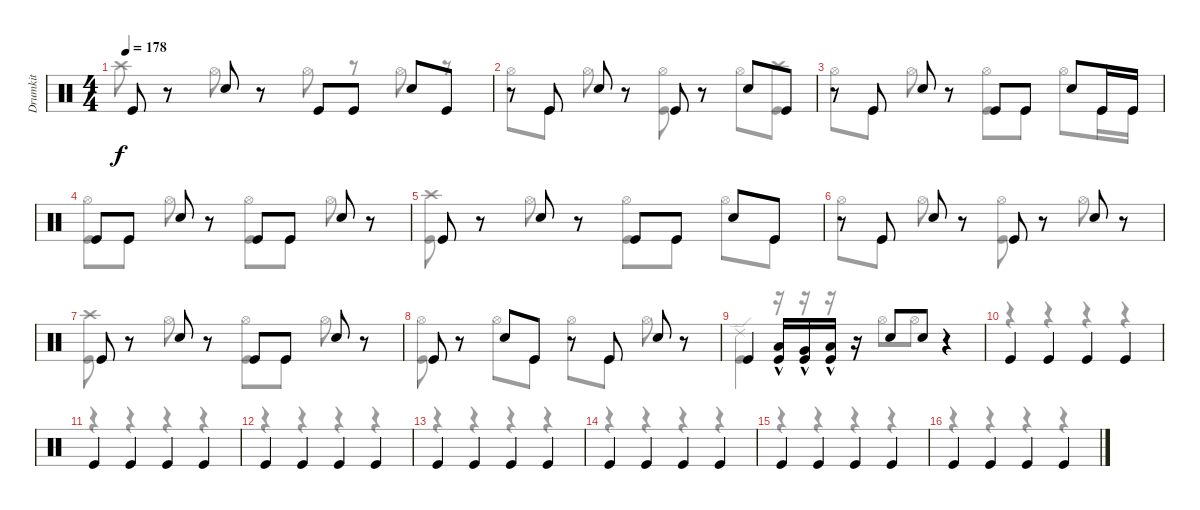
\track ("Drumkit" "Drumkit") {instrument percussion}
\staff {score}
\articulation defaults
\voice
\ts (4 4)
\section ("" "")
\tempo 178
\clef neutral
\ks c "Kick (hit)".8{dy f}
r.8 "Snare (hit) 2".8 r.8 "Kick (hit)".8 "Kick (hit)".8 "Snare (hit) 2".8 "Kick (hit)".8 |
r.8 "Kick (hit)".8 "Snare (hit) 2".8 r.8 "Kick (hit)".8 r.8 "Snare (hit) 2".8 "Kick (hit)".8 |
r.8 "Kick (hit)".8 "Snare (hit) 2".8 r.8 "Kick (hit)".8 "Kick (hit)".8 "Snare (hit) 2".8 "Kick (hit)".16 "Kick (hit)".16 |
"Kick (hit)".8 "Kick (hit)".8 "Snare (hit) 2".8 r.8 "Kick (hit)".8 "Kick (hit)".8 "Snare (hit) 2".8 r.8 |
"Kick (hit)".8 r.8 "Snare (hit) 2".8 r.8 "Kick (hit)".8 "Kick (hit)".8 "Snare (hit) 2".8 "Kick (hit)".8 |
r.8 "Kick (hit)".8 "Snare (hit) 2".8 r.8 "Kick (hit)".8 r.8 "Snare (hit) 2".8 r.8 |
"Kick (hit)".8 r.8 "Snare (hit) 2".8 r.8 "Kick (hit)".8 "Kick (hit)".8 "Snare (hit) 2".8 r.8 |
"Kick (hit)".8 r.8 "Snare (hit) 2".8 "Kick (hit)".8 r.8 "Kick (hit)".8 "Snare (hit) 2".8 r.8 |
"Kick (hit)".4 ("Kick (hit)" "Low Tom (hit)"{hac}).16 ("Kick (hit)" "Very Low Tom (hit)"{hac}).16 ("Kick (hit)" "Low Floor Tom (hit)"{hac}).16 r.16 "Snare (hit) 2".8 "Snare (hit) 2".8 r.4 |
\section ("" "")
"Kick (hit)".4 "Kick (hit)".4 "Kick (hit)".4 "Kick (hit)".4 |
"Kick (hit)".4 "Kick (hit)".4 "Kick (hit)".4 "Kick (hit)".4 |
"Kick (hit)".4 "Kick (hit)".4 "Kick (hit)".4 "Kick (hit)".4 |
"Kick (hit)".4 "Kick (hit)".4 "Kick (hit)".4 "Kick (hit)".4 |
"Kick (hit)".4 "Kick (hit)".4 "Kick (hit)".4 "Kick (hit)".4 |
"Kick (hit)".4 "Kick (hit)".4 "Kick (hit)".4 "Kick (hit)".4 |
"Kick (hit)".4 "Kick (hit)".4 "Kick (hit)".4 "Kick (hit)".4
\voice
\clef neutral
\ottava regular
\simile none
\ks c "Crash high (hit)".8{dy f}
r.8 "Hi-Hat (open)".8 r.8 "Hi-Hat (open)".8 r.8 "Hi-Hat (open)".8 r.8 |
"Hi-Hat (open)".8 "Kick (hit)".8 "Hi-Hat (open)".8 r.8 ("Hi-Hat (open)" "Kick (hit)").8 r.8 "Hi-Hat (open)".8 ("Crash high (hit)" "Kick (hit)").8 |
"Hi-Hat (open)".8 "Kick (hit)".8 "Hi-Hat (open)".8 r.8 ("Hi-Hat (open)" "Kick (hit)").8 "Kick (hit)".8 "Hi-Hat (open)".8 "Kick (hit)".16 "Kick (hit)".16 |
("Hi-Hat (open)" "Kick (hit)").8 "Kick (hit)".8 "Hi-Hat (open)".8 r.8 ("Hi-Hat (open)" "Kick (hit)").8 "Kick (hit)".8 "Hi-Hat (open)".8 r.8 |
("Kick (hit)" "Crash high (hit)").8 r.8 "Hi-Hat (open)".8 r.8 ("Hi-Hat (open)" "Kick (hit)").8 "Kick (hit)".8 "Hi-Hat (open)".8 "Kick (hit)".8 |
"Hi-Hat (open)".8 "Kick (hit)".8 "Hi-Hat (open)".8 r.8 ("Hi-Hat (open)" "Kick (hit)").8 r.8 "Hi-Hat (open)".8 r.8 |
("Crash high (hit)" "Kick (hit)").8 r.8 "Hi-Hat (open)".8 r.8 ("Hi-Hat (open)" "Kick (hit)").8 "Kick (hit)".8 "Hi-Hat (open)".8 r.8 |
("Hi-Hat (open)" "Kick (hit)").8 r.8 "Hi-Hat (open)".8 "Kick (hit)".8 "Hi-Hat (open)".8 "Kick (hit)".8 "Hi-Hat (open)".8 r.8 |
("Ride (edge) 2" "Kick (hit)").4 r.16 r.16 r.16 r.16 "Hi-Hat (open)".8 "Hi-Hat (open)".8 r.4 |
r.4 r.4 r.4 r.4 |
r.4 r.4 r.4 r.4 |
r.4 r.4 r.4 r.4 |
r.4 r.4 r.4 r.4 |
r.4 r.4 r.4 r.4 |
r.4 r.4 r.4 r.4 |
r.4 r.4 r.4 r.4
